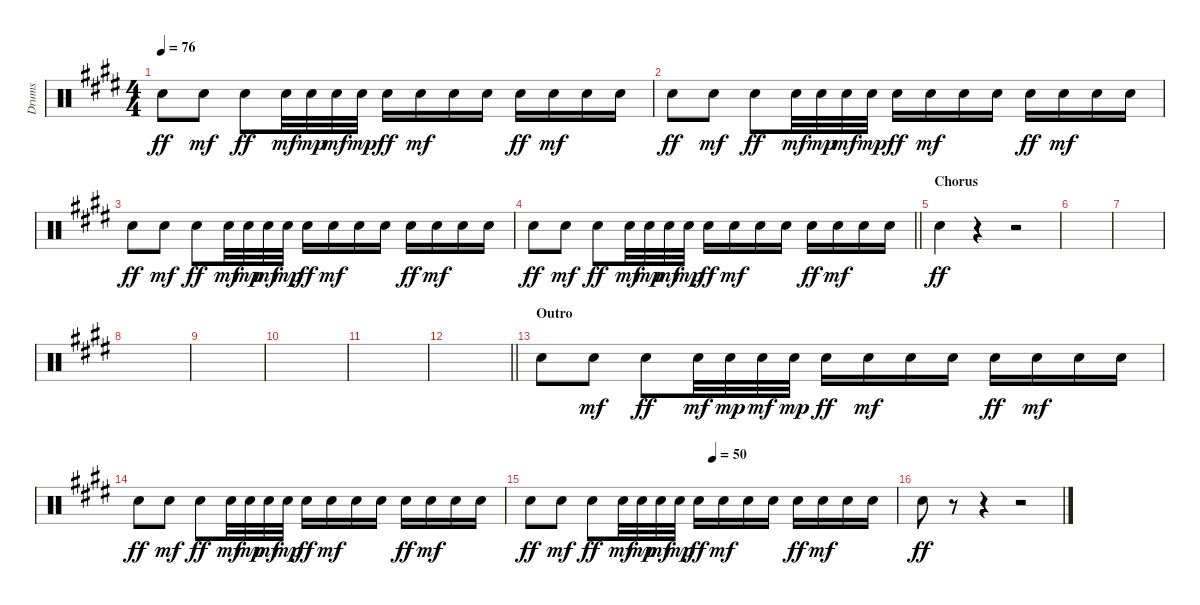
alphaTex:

\track ("Drums" "Drums") {instrument percussion}
\staff {score}
\articulation defaults
\ts (4 4)
\tempo 76
\clef neutral
\ks e "Snare (hit) 2".8{dy ff} "Snare (hit) 2".8{dy mf} "Snare (hit) 2".8{dy ff} "Snare (hit) 2".32{dy mf} "Snare (hit) 2".32{dy mp} "Snare (hit) 2".32{dy mf} "Snare (hit) 2".32{dy mp} "Snare (hit) 2".16{dy ff} "Snare (hit) 2".16{dy mf} "Snare (hit) 2".16 "Snare (hit) 2".16 "Snare (hit) 2".16{dy ff} "Snare (hit) 2".16{dy mf} "Snare (hit) 2".16 "Snare (hit) 2".16
|
"Snare (hit) 2".8{dy ff} "Snare (hit) 2".8{dy mf} "Snare (hit) 2".8{dy ff} "Snare (hit) 2".32{dy mf} "Snare (hit) 2".32{dy mp} "Snare (hit) 2".32{dy mf} "Snare (hit) 2".32{dy mp} "Snare (hit) 2".16{dy ff} "Snare (hit) 2".16{dy mf} "Snare (hit) 2".16 "Snare (hit) 2".16 "Snare (hit) 2".16{dy ff} "Snare (hit) 2".16{dy mf} "Snare (hit) 2".16 "Snare (hit) 2".16 |
"Snare (hit) 2".8{dy ff} "Snare (hit) 2".8{dy mf} "Snare (hit) 2".8{dy ff} "Snare (hit) 2".32{dy mf} "Snare (hit) 2".32{dy mp} "Snare (hit) 2".32{dy mf} "Snare (hit) 2".32{dy mp} "Snare (hit) 2".16{dy ff} "Snare (hit) 2".16{dy mf} "Snare (hit) 2".16 "Snare (hit) 2".16 "Snare (hit) 2".16{dy ff} "Snare (hit) 2".16{dy mf} "Snare (hit) 2".16 "Snare (hit) 2".16 |
\barLineRight lightlight "Snare (hit) 2".8{dy ff} "Snare (hit) 2".8{dy mf} "Snare (hit) 2".8{dy ff} "Snare (hit) 2".32{dy mf} "Snare (hit) 2".32{dy mp} "Snare (hit) 2".32{dy mf} "Snare (hit) 2".32{dy mp} "Snare (hit) 2".16{dy ff} "Snare (hit) 2".16{dy mf} "Snare (hit) 2".16 "Snare (hit) 2".16 "Snare (hit) 2".16{dy ff} "Snare (hit) 2".16{dy mf} "Snare (hit) 2".16 "Snare (hit) 2".16
|
\section ("" "Chorus")
"Snare (hit) 2".4{dy ff} r.4 r.2 |
|
|
|
|
|
|
\barLineRight lightlight
|
\section ("" "Outro")
"Snare (hit) 2".8 "Snare (hit) 2".8{dy mf} "Snare (hit) 2".8{dy ff} "Snare (hit) 2".32{dy mf} "Snare (hit) 2".32{dy mp} "Snare (hit) 2".32{dy mf} "Snare (hit) 2".32{dy mp} "Snare (hit) 2".16{dy ff} "Snare (hit) 2".16{dy mf} "Snare (hit) 2".16 "Snare (hit) 2".16 "Snare (hit) 2".16{dy ff} "Snare (hit) 2".16{dy mf} "Snare (hit) 2".16 "Snare (hit) 2".16 |
"Snare (hit) 2".8{dy ff volume 0} "Snare (hit) 2".8{dy mf} "Snare (hit) 2".8{dy ff} "Snare (hit) 2".32{dy mf} "Snare (hit) 2".32{dy mp} "Snare (hit) 2".32{dy mf} "Snare (hit) 2".32{dy mp} "Snare (hit) 2".16{dy ff} "Snare (hit) 2".16{dy mf} "Snare (hit) 2".16 "Snare (hit) 2".16 "Snare (hit) 2".16{dy ff} "Snare (hit) 2".16{dy mf} "Snare (hit) 2".16 "Snare (hit) 2".16 |
\tempo (50 0.5)
"Snare (hit) 2".8{dy ff} "Snare (hit) 2".8{dy mf} "Snare (hit) 2".8{dy ff} "Snare (hit) 2".32{dy mf} "Snare (hit) 2".32{dy mp} "Snare (hit) 2".32{dy mf} "Snare (hit) 2".32{dy mp} "Snare (hit) 2".16{dy ff} "Snare (hit) 2".16{dy mf} "Snare (hit) 2".16 "Snare (hit) 2".16 "Snare (hit) 2".16{dy ff} "Snare (hit) 2".16{dy mf} "Snare (hit) 2".16 "Snare (hit) 2".16 |
"Snare (hit) 2".8{dy ff} r.8 r.4 r.2
